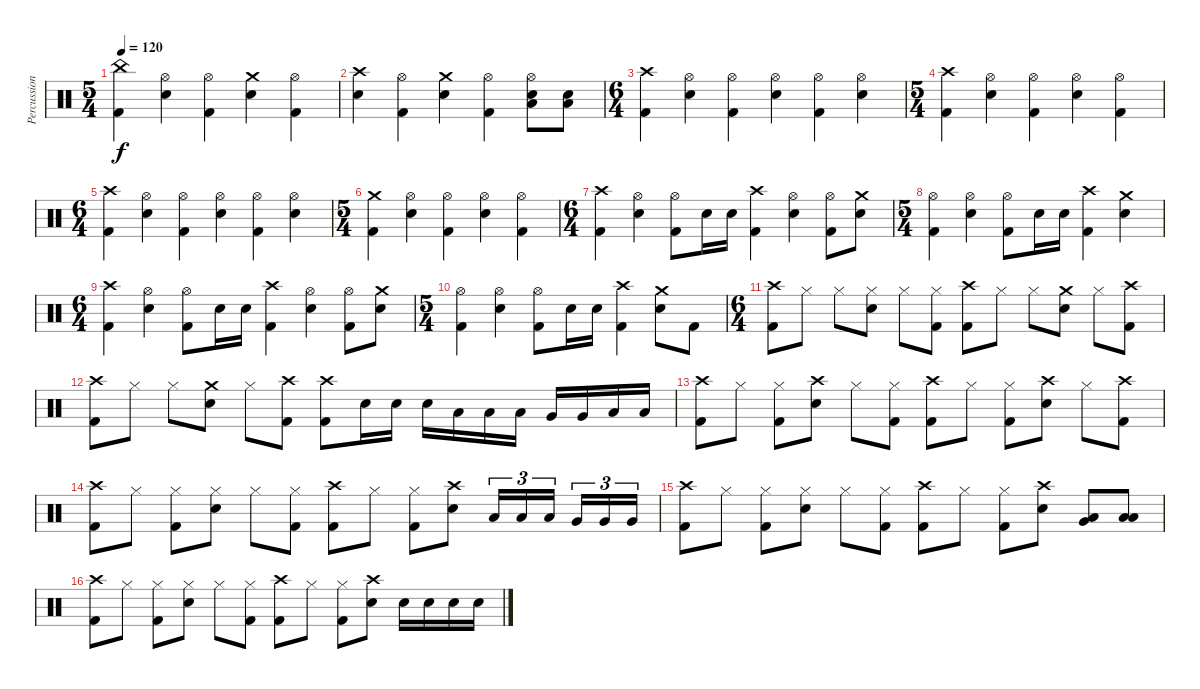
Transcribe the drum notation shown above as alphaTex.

\track ("Percussion" "Percussion") {instrument percussion}
\staff {score}
\articulation defaults
\ts (5 4)
\tempo 120
\clef neutral
\ks c
("China (hit)" "Kick (hit) 2").4{dy f} ("Hi-Hat (open)" "Electric Snare (hit)").4 ("Hi-Hat (open)" "Kick (hit) 2").4 ("Crash medium (hit)" "Electric Snare (hit)").4 ("Hi-Hat (open)" "Kick (hit) 2").4 |
("Crash high (hit)" "Electric Snare (hit)").4 ("Hi-Hat (open)" "Kick (hit) 2").4 ("Crash medium (hit)" "Electric Snare (hit)").4 ("Hi-Hat (open)" "Kick (hit) 2").4 ("Hi-Hat (open)" "Electric Snare (hit)" "Low Tom (hit)").8 ("Electric Snare (hit)" "Low Tom (hit)").8 |
\ts (6 4)
("Crash high (hit)" "Kick (hit) 2").4 ("Hi-Hat (open)" "Electric Snare (hit)").4 ("Hi-Hat (open)" "Kick (hit) 2").4 ("Hi-Hat (open)" "Electric Snare (hit)").4 ("Hi-Hat (open)" "Kick (hit) 2").4 ("Hi-Hat (open)" "Electric Snare (hit)").4 |
\ts (5 4)
("Crash high (hit)" "Kick (hit) 2").4 ("Hi-Hat (open)" "Electric Snare (hit)").4 ("Hi-Hat (open)" "Kick (hit) 2").4 ("Hi-Hat (open)" "Electric Snare (hit)").4 ("Hi-Hat (open)" "Kick (hit) 2").4 |
\ts (6 4)
("Crash high (hit)" "Kick (hit) 2").4 ("Hi-Hat (open)" "Electric Snare (hit)").4 ("Hi-Hat (open)" "Kick (hit) 2").4 ("Hi-Hat (open)" "Electric Snare (hit)").4 ("Hi-Hat (open)" "Kick (hit) 2").4 ("Hi-Hat (open)" "Electric Snare (hit)").4 |
\ts (5 4)
("Crash medium (hit)" "Kick (hit) 2").4 ("Hi-Hat (open)" "Electric Snare (hit)").4 ("Hi-Hat (open)" "Kick (hit) 2").4 ("Hi-Hat (open)" "Electric Snare (hit)").4 ("Hi-Hat (open)" "Kick (hit) 2").4 |
\ts (6 4)
("Crash high (hit)" "Kick (hit) 2").4 ("Hi-Hat (open)" "Electric Snare (hit)").4 ("Hi-Hat (open)" "Kick (hit) 2").8 "Electric Snare (hit)".16 "Electric Snare (hit)".16 ("Crash high (hit)" "Kick (hit) 2").4 ("Hi-Hat (open)" "Electric Snare (hit)").4 ("Hi-Hat (open)" "Kick (hit) 2").8 ("Crash medium (hit)" "Electric Snare (hit)").8 |
\ts (5 4)
("Hi-Hat (open)" "Kick (hit) 2").4 ("Hi-Hat (open)" "Electric Snare (hit)").4 ("Hi-Hat (open)" "Kick (hit) 2").8 "Electric Snare (hit)".16 "Electric Snare (hit)".16 ("Crash high (hit)" "Kick (hit) 2").4 ("Crash medium (hit)" "Electric Snare (hit)").4 |
\ts (6 4)
("Crash high (hit)" "Kick (hit) 2").4 ("Hi-Hat (open)" "Electric Snare (hit)").4 ("Hi-Hat (open)" "Kick (hit) 2").8 "Electric Snare (hit)".16 "Electric Snare (hit)".16 ("Crash high (hit)" "Kick (hit) 2").4 ("Hi-Hat (open)" "Electric Snare (hit)").4 ("Hi-Hat (open)" "Kick (hit) 2").8 ("Crash medium (hit)" "Electric Snare (hit)").8 |
\ts (5 4)
("Hi-Hat (open)" "Kick (hit) 2").4 ("Hi-Hat (open)" "Electric Snare (hit)").4 ("Hi-Hat (open)" "Kick (hit) 2").8 "Electric Snare (hit)".16 "Electric Snare (hit)".16 ("Crash high (hit)" "Kick (hit) 2").4 ("Crash medium (hit)" "Electric Snare (hit)").8 "Kick (hit) 2".8 |
\ts (6 4)
("Crash high (hit)" "Kick (hit) 2").8 "Hi-Hat (closed)".8 "Hi-Hat (closed)".8 ("Hi-Hat (closed)" "Electric Snare (hit)").8 "Hi-Hat (closed)".8 ("Hi-Hat (closed)" "Kick (hit) 2").8 ("Crash high (hit)" "Kick (hit) 2").8 "Hi-Hat (closed)".8 "Hi-Hat (closed)".8 ("Crash medium (hit)" "Electric Snare (hit)").8 "Hi-Hat (closed)".8 ("Crash high (hit)" "Kick (hit) 2").8 |
("Crash high (hit)" "Kick (hit) 2").8 "Hi-Hat (closed)".8 "Hi-Hat (closed)".8 ("Crash medium (hit)" "Electric Snare (hit)").8 "Hi-Hat (closed)".8 ("Crash high (hit)" "Kick (hit) 2").8 ("Crash high (hit)" "Kick (hit) 2").8 "Electric Snare (hit)".16 "Electric Snare (hit)".16 "Electric Snare (hit)".16 "Low Tom (hit)".16 "Low Tom (hit)".16 "Low Tom (hit)".16 "Very Low Tom (hit)".16 "Very Low Tom (hit)".16 "Low Floor Tom (hit)".16 "Low Floor Tom (hit)".16 |
("Crash high (hit)" "Kick (hit) 2").8 "Hi-Hat (closed)".8 ("Hi-Hat (closed)" "Kick (hit) 2").8 ("Crash high (hit)" "Electric Snare (hit)").8 "Hi-Hat (closed)".8 ("Hi-Hat (closed)" "Kick (hit) 2").8 ("Crash high (hit)" "Kick (hit) 2").8 "Hi-Hat (closed)".8 ("Hi-Hat (closed)" "Kick (hit) 2").8 ("Crash high (hit)" "Electric Snare (hit)").8 "Hi-Hat (closed)".8 ("Crash high (hit)" "Kick (hit) 2").8 |
("Crash high (hit)" "Kick (hit) 2").8 "Hi-Hat (closed)".8 ("Hi-Hat (closed)" "Kick (hit) 2").8 ("Hi-Hat (closed)" "Electric Snare (hit)").8 "Hi-Hat (closed)".8 ("Hi-Hat (closed)" "Kick (hit) 2").8 ("Crash high (hit)" "Kick (hit) 2").8 "Hi-Hat (closed)".8 ("Hi-Hat (closed)" "Kick (hit) 2").8 ("Crash high (hit)" "Electric Snare (hit)").8 "Low Tom (hit)".16{tu (3 2)} "Low Tom (hit)".16{tu (3 2)} "Low Tom (hit)".16{tu (3 2)} "Very Low Tom (hit)".16{tu (3 2)} "Very Low Tom (hit)".16{tu (3 2)} "Very Low Tom (hit)".16{tu (3 2)} |
("Crash high (hit)" "Kick (hit) 2").8 "Hi-Hat (closed)".8 ("Hi-Hat (closed)" "Kick (hit) 2").8 ("Hi-Hat (closed)" "Electric Snare (hit)").8 "Hi-Hat (closed)".8 ("Hi-Hat (closed)" "Kick (hit) 2").8 ("Crash high (hit)" "Kick (hit) 2").8 "Hi-Hat (closed)".8 ("Hi-Hat (closed)" "Kick (hit) 2").8 ("Crash high (hit)" "Electric Snare (hit)").8 ("Low Tom (hit)" "Very Low Tom (hit)").8 ("Low Tom (hit)" "Low Floor Tom (hit)").8 |
("Crash high (hit)" "Kick (hit) 2").8 "Hi-Hat (closed)".8 ("Hi-Hat (closed)" "Kick (hit) 2").8 ("Hi-Hat (closed)" "Electric Snare (hit)").8 "Hi-Hat (closed)".8 ("Hi-Hat (closed)" "Kick (hit) 2").8 ("Crash high (hit)" "Kick (hit) 2").8 "Hi-Hat (closed)".8 ("Hi-Hat (closed)" "Kick (hit) 2").8 ("Crash high (hit)" "Electric Snare (hit)").8 "Electric Snare (hit)".16 "Electric Snare (hit)".16 "Electric Snare (hit)".16 "Electric Snare (hit)".16
